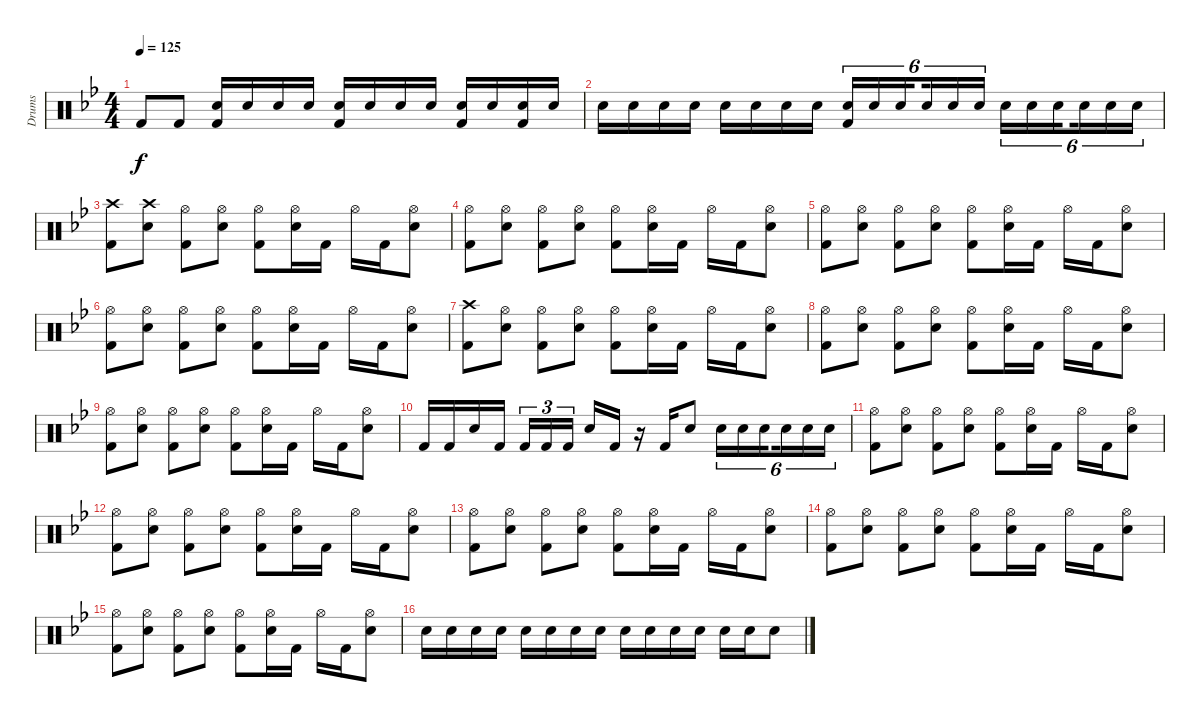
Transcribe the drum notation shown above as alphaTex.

\track ("Drums" "Drums") {instrument percussion}
\staff {score}
\articulation defaults
\ts (4 4)
\tempo 125
\clef neutral
\ks bb "Kick (hit) 2".8{dy f} "Kick (hit) 2".8
("Electric Snare (hit)" "Kick (hit) 2").16 "Electric Snare (hit)".16 "Electric Snare (hit)".16 "Electric Snare (hit)".16 ("Electric Snare (hit)" "Kick (hit) 2").16 "Electric Snare (hit)".16 "Electric Snare (hit)".16 "Electric Snare (hit)".16 ("Electric Snare (hit)" "Kick (hit) 2").16 "Electric Snare (hit)".16 ("Electric Snare (hit)" "Kick (hit) 2").16 "Electric Snare (hit)".16 |
"Electric Snare (hit)".16 "Electric Snare (hit)".16 "Electric Snare (hit)".16 "Electric Snare (hit)".16 "Electric Snare (hit)".16 "Electric Snare (hit)".16 "Electric Snare (hit)".16 "Electric Snare (hit)".16 ("Electric Snare (hit)" "Kick (hit) 2").16{tu (6 4)} "Electric Snare (hit)".16{tu (6 4)} "Electric Snare (hit)".16{tu (6 4) beam splitsecondary} "Electric Snare (hit)".16{tu (6 4)} "Electric Snare (hit)".16{tu (6 4)} "Electric Snare (hit)".16{tu (6 4)} "Electric Snare (hit)".16{tu (6 4)} "Electric Snare (hit)".16{tu (6 4)} "Electric Snare (hit)".16{tu (6 4) beam splitsecondary} "Electric Snare (hit)".16{tu (6 4)} "Electric Snare (hit)".16{tu (6 4)} "Electric Snare (hit)".16{tu (6 4)} |
("Crash high (hit)" "Kick (hit) 2").8 ("Crash high (hit)" "Electric Snare (hit)").8 ("Hi-Hat (open)" "Kick (hit) 2").8 ("Hi-Hat (open)" "Electric Snare (hit)").8 ("Hi-Hat (open)" "Kick (hit) 2").8 ("Hi-Hat (open)" "Electric Snare (hit)").16 "Kick (hit) 2".16 "Hi-Hat (open)".16 "Kick (hit) 2".16 ("Hi-Hat (open)" "Electric Snare (hit)").8 |
("Hi-Hat (open)" "Kick (hit) 2").8 ("Hi-Hat (open)" "Electric Snare (hit)").8 ("Hi-Hat (open)" "Kick (hit) 2").8 ("Hi-Hat (open)" "Electric Snare (hit)").8 ("Hi-Hat (open)" "Kick (hit) 2").8 ("Hi-Hat (open)" "Electric Snare (hit)").16 "Kick (hit) 2".16 "Hi-Hat (open)".16 "Kick (hit) 2".16 ("Hi-Hat (open)" "Electric Snare (hit)").8 |
("Hi-Hat (open)" "Kick (hit) 2").8 ("Hi-Hat (open)" "Electric Snare (hit)").8 ("Hi-Hat (open)" "Kick (hit) 2").8 ("Hi-Hat (open)" "Electric Snare (hit)").8 ("Hi-Hat (open)" "Kick (hit) 2").8 ("Hi-Hat (open)" "Electric Snare (hit)").16 "Kick (hit) 2".16 "Hi-Hat (open)".16 "Kick (hit) 2".16 ("Hi-Hat (open)" "Electric Snare (hit)").8 |
("Hi-Hat (open)" "Kick (hit) 2").8 ("Hi-Hat (open)" "Electric Snare (hit)").8 ("Hi-Hat (open)" "Kick (hit) 2").8 ("Hi-Hat (open)" "Electric Snare (hit)").8 ("Hi-Hat (open)" "Kick (hit) 2").8 ("Hi-Hat (open)" "Electric Snare (hit)").16 "Kick (hit) 2".16 "Hi-Hat (open)".16 "Kick (hit) 2".16 ("Hi-Hat (open)" "Electric Snare (hit)").8 |
("Crash high (hit)" "Kick (hit) 2").8 ("Hi-Hat (open)" "Electric Snare (hit)").8 ("Hi-Hat (open)" "Kick (hit) 2").8 ("Hi-Hat (open)" "Electric Snare (hit)").8 ("Hi-Hat (open)" "Kick (hit) 2").8 ("Hi-Hat (open)" "Electric Snare (hit)").16 "Kick (hit) 2".16 "Hi-Hat (open)".16 "Kick (hit) 2".16 ("Hi-Hat (open)" "Electric Snare (hit)").8 |
("Hi-Hat (open)" "Kick (hit) 2").8 ("Hi-Hat (open)" "Electric Snare (hit)").8 ("Hi-Hat (open)" "Kick (hit) 2").8 ("Hi-Hat (open)" "Electric Snare (hit)").8 ("Hi-Hat (open)" "Kick (hit) 2").8 ("Hi-Hat (open)" "Electric Snare (hit)").16 "Kick (hit) 2".16 "Hi-Hat (open)".16 "Kick (hit) 2".16 ("Hi-Hat (open)" "Electric Snare (hit)").8 |
("Hi-Hat (open)" "Kick (hit) 2").8 ("Hi-Hat (open)" "Electric Snare (hit)").8 ("Hi-Hat (open)" "Kick (hit) 2").8 ("Hi-Hat (open)" "Electric Snare (hit)").8 ("Hi-Hat (open)" "Kick (hit) 2").8 ("Hi-Hat (open)" "Electric Snare (hit)").16 "Kick (hit) 2".16 "Hi-Hat (open)".16 "Kick (hit) 2".16 ("Hi-Hat (open)" "Electric Snare (hit)").8 |
"Kick (hit) 2".16 "Kick (hit) 2".16 "Electric Snare (hit)".16 "Kick (hit) 2".16 "Kick (hit) 2".16{tu (3 2)} "Kick (hit) 2".16{tu (3 2)} "Kick (hit) 2".16{tu (3 2) beam splitsecondary} "Electric Snare (hit)".16 "Kick (hit) 2".16 r.16 "Kick (hit) 2".16 "Electric Snare (hit)".8 "Electric Snare (hit)".16{tu (6 4)} "Electric Snare (hit)".16{tu (6 4)} "Electric Snare (hit)".16{tu (6 4) beam splitsecondary} "Electric Snare (hit)".16{tu (6 4)} "Electric Snare (hit)".16{tu (6 4)} "Electric Snare (hit)".16{tu (6 4)} |
("Hi-Hat (open)" "Kick (hit) 2").8 ("Hi-Hat (open)" "Electric Snare (hit)").8 ("Hi-Hat (open)" "Kick (hit) 2").8 ("Hi-Hat (open)" "Electric Snare (hit)").8 ("Hi-Hat (open)" "Kick (hit) 2").8 ("Hi-Hat (open)" "Electric Snare (hit)").16 "Kick (hit) 2".16 "Hi-Hat (open)".16 "Kick (hit) 2".16 ("Hi-Hat (open)" "Electric Snare (hit)").8 |
("Hi-Hat (open)" "Kick (hit) 2").8 ("Hi-Hat (open)" "Electric Snare (hit)").8 ("Hi-Hat (open)" "Kick (hit) 2").8 ("Hi-Hat (open)" "Electric Snare (hit)").8 ("Hi-Hat (open)" "Kick (hit) 2").8 ("Hi-Hat (open)" "Electric Snare (hit)").16 "Kick (hit) 2".16 "Hi-Hat (open)".16 "Kick (hit) 2".16 ("Hi-Hat (open)" "Electric Snare (hit)").8 |
("Hi-Hat (open)" "Kick (hit) 2").8 ("Hi-Hat (open)" "Electric Snare (hit)").8 ("Hi-Hat (open)" "Kick (hit) 2").8 ("Hi-Hat (open)" "Electric Snare (hit)").8 ("Hi-Hat (open)" "Kick (hit) 2").8 ("Hi-Hat (open)" "Electric Snare (hit)").16 "Kick (hit) 2".16 "Hi-Hat (open)".16 "Kick (hit) 2".16 ("Hi-Hat (open)" "Electric Snare (hit)").8 |
("Hi-Hat (open)" "Kick (hit) 2").8 ("Hi-Hat (open)" "Electric Snare (hit)").8 ("Hi-Hat (open)" "Kick (hit) 2").8 ("Hi-Hat (open)" "Electric Snare (hit)").8 ("Hi-Hat (open)" "Kick (hit) 2").8 ("Hi-Hat (open)" "Electric Snare (hit)").16 "Kick (hit) 2".16 "Hi-Hat (open)".16 "Kick (hit) 2".16 ("Hi-Hat (open)" "Electric Snare (hit)").8 |
("Hi-Hat (open)" "Kick (hit) 2").8 ("Hi-Hat (open)" "Electric Snare (hit)").8 ("Hi-Hat (open)" "Kick (hit) 2").8 ("Hi-Hat (open)" "Electric Snare (hit)").8 ("Hi-Hat (open)" "Kick (hit) 2").8 ("Hi-Hat (open)" "Electric Snare (hit)").16 "Kick (hit) 2".16 "Hi-Hat (open)".16 "Kick (hit) 2".16 ("Hi-Hat (open)" "Electric Snare (hit)").8 |
"Electric Snare (hit)".16 "Electric Snare (hit)".16 "Electric Snare (hit)".16 "Electric Snare (hit)".16 "Electric Snare (hit)".16 "Electric Snare (hit)".16 "Electric Snare (hit)".16 "Electric Snare (hit)".16 "Electric Snare (hit)".16 "Electric Snare (hit)".16 "Electric Snare (hit)".16 "Electric Snare (hit)".16 "Electric Snare (hit)".16 "Electric Snare (hit)".16 "Electric Snare (hit)".8
